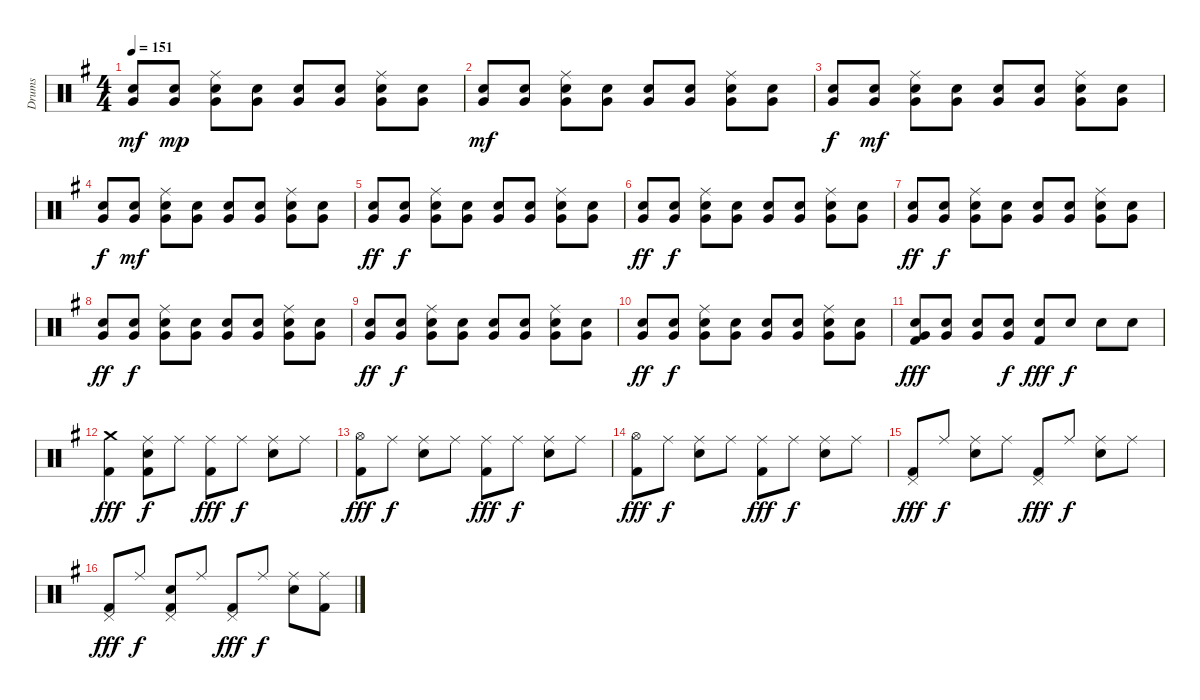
\track ("Drums " "Drums ") {instrument percussion}
\staff {score}
\articulation defaults
\ts (4 4)
\tempo 151
\clef neutral
\ks eminor
("Snare (hit) 2" "Very Low Tom (hit)").8{dy mf} ("Snare (hit) 2" "Very Low Tom (hit)").8{dy mp} ("Ride (middle)" "Snare (hit) 2" "Very Low Tom (hit)").8 ("Snare (hit) 2" "Very Low Tom (hit)").8 ("Snare (hit) 2" "Very Low Tom (hit)").8 ("Snare (hit) 2" "Very Low Tom (hit)").8 ("Ride (middle)" "Snare (hit) 2" "Very Low Tom (hit)").8 ("Snare (hit) 2" "Very Low Tom (hit)").8 |
("Snare (hit) 2" "Very Low Tom (hit)").8{dy mf} ("Snare (hit) 2" "Very Low Tom (hit)").8 ("Ride (middle)" "Snare (hit) 2" "Very Low Tom (hit)").8 ("Snare (hit) 2" "Very Low Tom (hit)").8 ("Snare (hit) 2" "Very Low Tom (hit)").8 ("Snare (hit) 2" "Very Low Tom (hit)").8 ("Ride (middle)" "Snare (hit) 2" "Very Low Tom (hit)").8 ("Snare (hit) 2" "Very Low Tom (hit)").8 |
("Snare (hit) 2" "Very Low Tom (hit)").8{dy f} ("Snare (hit) 2" "Very Low Tom (hit)").8{dy mf} ("Ride (middle)" "Snare (hit) 2" "Very Low Tom (hit)").8 ("Snare (hit) 2" "Very Low Tom (hit)").8 ("Snare (hit) 2" "Very Low Tom (hit)").8 ("Snare (hit) 2" "Very Low Tom (hit)").8 ("Ride (middle)" "Snare (hit) 2" "Very Low Tom (hit)").8 ("Snare (hit) 2" "Very Low Tom (hit)").8 |
("Snare (hit) 2" "Very Low Tom (hit)").8{dy f} ("Snare (hit) 2" "Very Low Tom (hit)").8{dy mf} ("Ride (middle)" "Snare (hit) 2" "Very Low Tom (hit)").8 ("Snare (hit) 2" "Very Low Tom (hit)").8 ("Snare (hit) 2" "Very Low Tom (hit)").8 ("Snare (hit) 2" "Very Low Tom (hit)").8 ("Ride (middle)" "Snare (hit) 2" "Very Low Tom (hit)").8 ("Snare (hit) 2" "Very Low Tom (hit)").8 |
("Snare (hit) 2" "Very Low Tom (hit)").8{dy ff} ("Snare (hit) 2" "Very Low Tom (hit)").8{dy f} ("Ride (middle)" "Snare (hit) 2" "Very Low Tom (hit)").8 ("Snare (hit) 2" "Very Low Tom (hit)").8 ("Snare (hit) 2" "Very Low Tom (hit)").8 ("Snare (hit) 2" "Very Low Tom (hit)").8 ("Ride (middle)" "Snare (hit) 2" "Very Low Tom (hit)").8 ("Snare (hit) 2" "Very Low Tom (hit)").8 |
("Snare (hit) 2" "Very Low Tom (hit)").8{dy ff} ("Snare (hit) 2" "Very Low Tom (hit)").8{dy f} ("Ride (middle)" "Snare (hit) 2" "Very Low Tom (hit)").8 ("Snare (hit) 2" "Very Low Tom (hit)").8 ("Snare (hit) 2" "Very Low Tom (hit)").8 ("Snare (hit) 2" "Very Low Tom (hit)").8 ("Ride (middle)" "Snare (hit) 2" "Very Low Tom (hit)").8 ("Snare (hit) 2" "Very Low Tom (hit)").8 |
("Snare (hit) 2" "Very Low Tom (hit)").8{dy ff} ("Snare (hit) 2" "Very Low Tom (hit)").8{dy f} ("Ride (middle)" "Snare (hit) 2" "Very Low Tom (hit)").8 ("Snare (hit) 2" "Very Low Tom (hit)").8 ("Snare (hit) 2" "Very Low Tom (hit)").8 ("Snare (hit) 2" "Very Low Tom (hit)").8 ("Ride (middle)" "Snare (hit) 2" "Very Low Tom (hit)").8 ("Snare (hit) 2" "Very Low Tom (hit)").8 |
("Snare (hit) 2" "Very Low Tom (hit)").8{dy ff} ("Snare (hit) 2" "Very Low Tom (hit)").8{dy f} ("Ride (middle)" "Snare (hit) 2" "Very Low Tom (hit)").8 ("Snare (hit) 2" "Very Low Tom (hit)").8 ("Snare (hit) 2" "Very Low Tom (hit)").8 ("Snare (hit) 2" "Very Low Tom (hit)").8 ("Ride (middle)" "Snare (hit) 2" "Very Low Tom (hit)").8 ("Snare (hit) 2" "Very Low Tom (hit)").8 |
("Snare (hit) 2" "Very Low Tom (hit)").8{dy ff} ("Snare (hit) 2" "Very Low Tom (hit)").8{dy f} ("Ride (middle)" "Snare (hit) 2" "Very Low Tom (hit)").8 ("Snare (hit) 2" "Very Low Tom (hit)").8 ("Snare (hit) 2" "Very Low Tom (hit)").8 ("Snare (hit) 2" "Very Low Tom (hit)").8 ("Ride (middle)" "Snare (hit) 2" "Very Low Tom (hit)").8 ("Snare (hit) 2" "Very Low Tom (hit)").8 |
("Snare (hit) 2" "Very Low Tom (hit)").8{dy ff} ("Snare (hit) 2" "Very Low Tom (hit)").8{dy f} ("Ride (middle)" "Snare (hit) 2" "Very Low Tom (hit)").8 ("Snare (hit) 2" "Very Low Tom (hit)").8 ("Snare (hit) 2" "Very Low Tom (hit)").8 ("Snare (hit) 2" "Very Low Tom (hit)").8 ("Ride (middle)" "Snare (hit) 2" "Very Low Tom (hit)").8 ("Snare (hit) 2" "Very Low Tom (hit)").8 |
("Snare (hit) 2" "Kick (hit) 2" "Very Low Tom (hit)").8{dy fff} ("Snare (hit) 2" "Very Low Tom (hit)").8 ("Snare (hit) 2" "Very Low Tom (hit)").8 ("Snare (hit) 2" "Very Low Tom (hit)").8{dy f} ("Snare (hit) 2" "Kick (hit) 2").8{dy fff} "Snare (hit) 2".8{dy f} "Snare (hit) 2".8 "Snare (hit) 2".8 |
("Crash medium (hit)" "Kick (hit) 2").4{dy fff} ("Ride (middle)" "Snare (hit) 2" "Kick (hit) 2").8{dy f} "Ride (middle)".8 ("Ride (middle)" "Kick (hit) 2").8{dy fff} "Ride (middle)".8{dy f} ("Ride (middle)" "Snare (hit) 2").8 "Ride (middle)".8 |
("Kick (hit) 2" "Hi-Hat (open)").8{dy fff} "Ride (middle)".8{dy f} ("Snare (hit) 2" "Ride (middle)").8 "Ride (middle)".8 ("Kick (hit) 2" "Ride (middle)").8{dy fff} "Ride (middle)".8{dy f} ("Snare (hit) 2" "Ride (middle)").8 "Ride (middle)".8 |
("Kick (hit) 2" "Hi-Hat (open)").8{dy fff} "Ride (middle)".8{dy f} ("Snare (hit) 2" "Ride (middle)").8 "Ride (middle)".8 ("Kick (hit) 2" "Ride (middle)").8{dy fff} "Ride (middle)".8{dy f} ("Snare (hit) 2" "Ride (middle)").8 "Ride (middle)".8 |
("Pedal Hi-Hat (hit)" "Kick (hit) 2").8{dy fff} "Ride (middle)".8{dy f} ("Snare (hit) 2" "Ride (middle)").8 "Ride (middle)".8 ("Pedal Hi-Hat (hit)" "Kick (hit) 2").8{dy fff} "Ride (middle)".8{dy f} ("Snare (hit) 2" "Ride (middle)").8 "Ride (middle)".8 |
("Pedal Hi-Hat (hit)" "Kick (hit) 2").8{dy fff} "Ride (middle)".8{dy f} ("Pedal Hi-Hat (hit)" "Snare (hit) 2" "Kick (hit) 2").8 "Ride (middle)".8 ("Pedal Hi-Hat (hit)" "Kick (hit) 2").8{dy fff} "Ride (middle)".8{dy f} ("Ride (middle)" "Snare (hit) 2").8 ("Kick (hit) 2" "Ride (middle)").8
